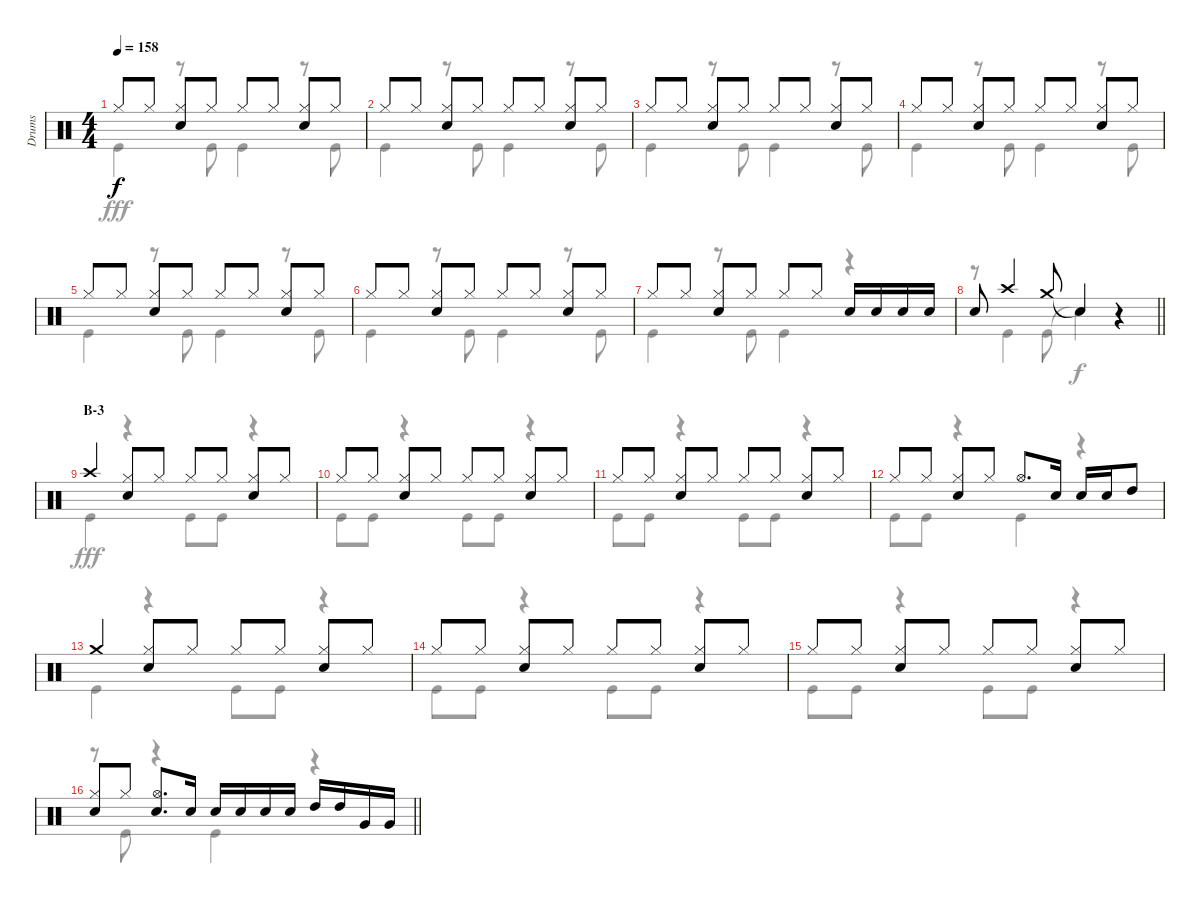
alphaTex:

\track ("Drums" "Drums") {instrument percussion}
\staff {score}
\articulation defaults
\voice
\ts (4 4)
\tempo 158
\clef neutral
\ks c "Hi-Hat (closed)".8{dy f} "Hi-Hat (closed)".8
("Hi-Hat (closed)" "Snare (hit) 2").8 "Hi-Hat (closed)".8 "Hi-Hat (closed)".8 "Hi-Hat (closed)".8 ("Hi-Hat (closed)" "Snare (hit) 2").8 "Hi-Hat (closed)".8 |
"Hi-Hat (closed)".8 "Hi-Hat (closed)".8 ("Hi-Hat (closed)" "Snare (hit) 2").8 "Hi-Hat (closed)".8 "Hi-Hat (closed)".8 "Hi-Hat (closed)".8 ("Hi-Hat (closed)" "Snare (hit) 2").8 "Hi-Hat (closed)".8 |
"Hi-Hat (closed)".8 "Hi-Hat (closed)".8 ("Hi-Hat (closed)" "Snare (hit) 2").8 "Hi-Hat (closed)".8 "Hi-Hat (closed)".8 "Hi-Hat (closed)".8 ("Hi-Hat (closed)" "Snare (hit) 2").8 "Hi-Hat (closed)".8 |
"Hi-Hat (closed)".8 "Hi-Hat (closed)".8 ("Hi-Hat (closed)" "Snare (hit) 2").8 "Hi-Hat (closed)".8 "Hi-Hat (closed)".8 "Hi-Hat (closed)".8 ("Hi-Hat (closed)" "Snare (hit) 2").8 "Hi-Hat (closed)".8 |
"Hi-Hat (closed)".8 "Hi-Hat (closed)".8 ("Hi-Hat (closed)" "Snare (hit) 2").8 "Hi-Hat (closed)".8 "Hi-Hat (closed)".8 "Hi-Hat (closed)".8 ("Hi-Hat (closed)" "Snare (hit) 2").8 "Hi-Hat (closed)".8 |
"Hi-Hat (closed)".8 "Hi-Hat (closed)".8 ("Hi-Hat (closed)" "Snare (hit) 2").8 "Hi-Hat (closed)".8 "Hi-Hat (closed)".8 "Hi-Hat (closed)".8 ("Hi-Hat (closed)" "Snare (hit) 2").8 "Hi-Hat (closed)".8 |
"Hi-Hat (closed)".8 "Hi-Hat (closed)".8 ("Hi-Hat (closed)" "Snare (hit) 2").8 "Hi-Hat (closed)".8 "Hi-Hat (closed)".8 "Hi-Hat (closed)".8 "Snare (hit) 2".16 "Snare (hit) 2".16 "Snare (hit) 2".16 "Snare (hit) 2".16 |
\barLineRight lightlight "Snare (hit) 2".8 "Crash high (hit)".4 "Crash medium (hit)".8 "Snare (hit)"{t}.4
r.4 |
\section ("" "B-3")
"Crash high (hit)".4 ("Hi-Hat (closed)" "Snare (hit) 2").8 "Hi-Hat (closed)".8 "Hi-Hat (closed)".8 "Hi-Hat (closed)".8 ("Hi-Hat (closed)" "Snare (hit) 2").8 "Hi-Hat (closed)".8 |
"Hi-Hat (closed)".8 "Hi-Hat (closed)".8 ("Hi-Hat (closed)" "Snare (hit) 2").8 "Hi-Hat (closed)".8 "Hi-Hat (closed)".8 "Hi-Hat (closed)".8 ("Hi-Hat (closed)" "Snare (hit) 2").8 "Hi-Hat (closed)".8 |
"Hi-Hat (closed)".8 "Hi-Hat (closed)".8 ("Hi-Hat (closed)" "Snare (hit) 2").8 "Hi-Hat (closed)".8 "Hi-Hat (closed)".8 "Hi-Hat (closed)".8 ("Hi-Hat (closed)" "Snare (hit) 2").8 "Hi-Hat (closed)".8 |
"Hi-Hat (closed)".8 "Hi-Hat (closed)".8 ("Hi-Hat (closed)" "Snare (hit) 2").8 "Hi-Hat (closed)".8 "Hi-Hat (open)".8{d} "Snare (hit) 2".16 "Snare (hit) 2".16 "Snare (hit) 2".16 "High Tom (hit)".8 |
"Crash medium (hit)".4 ("Hi-Hat (closed)" "Snare (hit) 2").8 "Hi-Hat (closed)".8 "Hi-Hat (closed)".8 "Hi-Hat (closed)".8 ("Hi-Hat (closed)" "Snare (hit) 2").8 "Hi-Hat (closed)".8 |
"Hi-Hat (closed)".8 "Hi-Hat (closed)".8 ("Hi-Hat (closed)" "Snare (hit) 2").8 "Hi-Hat (closed)".8 "Hi-Hat (closed)".8 "Hi-Hat (closed)".8 ("Hi-Hat (closed)" "Snare (hit) 2").8 "Hi-Hat (closed)".8 |
"Hi-Hat (closed)".8 "Hi-Hat (closed)".8 ("Hi-Hat (closed)" "Snare (hit) 2").8 "Hi-Hat (closed)".8 "Hi-Hat (closed)".8 "Hi-Hat (closed)".8 ("Hi-Hat (closed)" "Snare (hit) 2").8 "Hi-Hat (closed)".8 |
\barLineRight lightlight
("Hi-Hat (closed)" "Snare (hit) 2").8 "Hi-Hat (closed)".8 ("Hi-Hat (open)" "Snare (hit) 2").8{d} "Snare (hit) 2".16 "Snare (hit) 2".16 "Snare (hit) 2".16 "Snare (hit) 2".16 "Snare (hit) 2".16 "High Tom (hit)".16 "High Tom (hit)".16 "Very Low Tom (hit)".16 "Very Low Tom (hit)".16
\voice
\clef neutral
\ottava regular
\simile none
\ks c "Kick (hit)".4{dy fff}
r.8 "Kick (hit)".8 "Kick (hit)".4 r.8 "Kick (hit)".8 |
"Kick (hit)".4 r.8 "Kick (hit)".8 "Kick (hit)".4 r.8 "Kick (hit)".8 |
"Kick (hit)".4 r.8 "Kick (hit)".8 "Kick (hit)".4 r.8 "Kick (hit)".8 |
"Kick (hit)".4 r.8 "Kick (hit)".8 "Kick (hit)".4 r.8 "Kick (hit)".8 |
"Kick (hit)".4 r.8 "Kick (hit)".8 "Kick (hit)".4 r.8 "Kick (hit)".8 |
"Kick (hit)".4 r.8 "Kick (hit)".8 "Kick (hit)".4 r.8 "Kick (hit)".8 |
"Kick (hit)".4 r.8 "Kick (hit)".8 "Kick (hit)".4 r.4 |
\barLineRight lightlight
r.8 "Kick (hit)".4 "Kick (hit)".8 "Snare (hit)"{t}.4{dy f} r.4 |
"Kick (hit)".4{dy fff} r.4 "Kick (hit)".8 "Kick (hit)".8 r.4 |
"Kick (hit)".8 "Kick (hit)".8 r.4 "Kick (hit)".8 "Kick (hit)".8 r.4 |
"Kick (hit)".8 "Kick (hit)".8 r.4 "Kick (hit)".8 "Kick (hit)".8 r.4 |
"Kick (hit)".8 "Kick (hit)".8 r.4 "Kick (hit)".4 r.4 |
"Kick (hit)".4 r.4 "Kick (hit)".8 "Kick (hit)".8 r.4 |
"Kick (hit)".8 "Kick (hit)".8 r.4 "Kick (hit)".8 "Kick (hit)".8 r.4 |
"Kick (hit)".8 "Kick (hit)".8 r.4 "Kick (hit)".8 "Kick (hit)".8 r.4 |
\barLineRight lightlight
r.8 "Kick (hit)".8 r.4 "Kick (hit)".4 r.4
